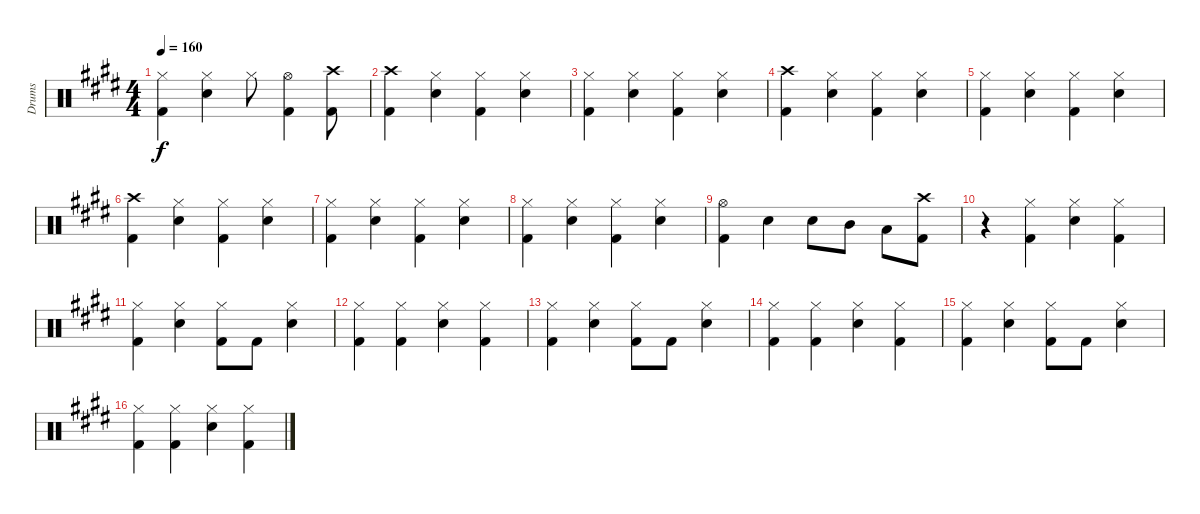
\track ("Drums" "Drums") {instrument percussion}
\staff {score}
\articulation defaults
\ts (4 4)
\tempo 160
\clef neutral
\ks e
("Hi-Hat (closed)" "Kick (hit) 2").4{dy f} ("Hi-Hat (closed)" "Electric Snare (hit)").4 "Hi-Hat (closed)".8 ("Hi-Hat (open)" "Kick (hit) 2").4 ("Crash high (hit)" "Kick (hit) 2").8 |
("Crash high (hit)" "Kick (hit) 2").4 ("Hi-Hat (closed)" "Electric Snare (hit)").4 ("Hi-Hat (closed)" "Kick (hit) 2").4 ("Hi-Hat (closed)" "Electric Snare (hit)").4 |
("Hi-Hat (closed)" "Kick (hit) 2").4 ("Hi-Hat (closed)" "Electric Snare (hit)").4 ("Hi-Hat (closed)" "Kick (hit) 2").4 ("Hi-Hat (closed)" "Electric Snare (hit)").4 |
("Crash high (hit)" "Kick (hit) 2").4 ("Hi-Hat (closed)" "Electric Snare (hit)").4 ("Hi-Hat (closed)" "Kick (hit) 2").4 ("Hi-Hat (closed)" "Electric Snare (hit)").4 |
("Hi-Hat (closed)" "Kick (hit) 2").4 ("Hi-Hat (closed)" "Electric Snare (hit)").4 ("Hi-Hat (closed)" "Kick (hit) 2").4 ("Hi-Hat (closed)" "Electric Snare (hit)").4 |
("Crash high (hit)" "Kick (hit) 2").4 ("Hi-Hat (closed)" "Electric Snare (hit)").4 ("Hi-Hat (closed)" "Kick (hit) 2").4 ("Hi-Hat (closed)" "Electric Snare (hit)").4 |
("Hi-Hat (closed)" "Kick (hit) 2").4 ("Hi-Hat (closed)" "Electric Snare (hit)").4 ("Hi-Hat (closed)" "Kick (hit) 2").4 ("Hi-Hat (closed)" "Electric Snare (hit)").4 |
("Hi-Hat (closed)" "Kick (hit) 2").4 ("Hi-Hat (closed)" "Electric Snare (hit)").4 ("Hi-Hat (closed)" "Kick (hit) 2").4 ("Hi-Hat (closed)" "Electric Snare (hit)").4 |
("Hi-Hat (open)" "Kick (hit) 2").4 "Electric Snare (hit)".4 "Electric Snare (hit)".8 "Mid Tom (hit)".8 "Low Tom (hit)".8 ("Crash high (hit)" "Kick (hit) 2").8 |
r.4 ("Hi-Hat (closed)" "Kick (hit) 2").4 ("Hi-Hat (closed)" "Electric Snare (hit)").4 ("Hi-Hat (closed)" "Kick (hit) 2").4 |
("Hi-Hat (closed)" "Kick (hit) 2").4 ("Hi-Hat (closed)" "Electric Snare (hit)").4 ("Hi-Hat (closed)" "Kick (hit) 2").8 "Kick (hit) 2".8 ("Hi-Hat (closed)" "Electric Snare (hit)").4 |
("Hi-Hat (closed)" "Kick (hit) 2").4 ("Hi-Hat (closed)" "Kick (hit) 2").4 ("Hi-Hat (closed)" "Electric Snare (hit)").4 ("Hi-Hat (closed)" "Kick (hit) 2").4 |
("Hi-Hat (closed)" "Kick (hit) 2").4 ("Hi-Hat (closed)" "Electric Snare (hit)").4 ("Hi-Hat (closed)" "Kick (hit) 2").8 "Kick (hit) 2".8 ("Hi-Hat (closed)" "Electric Snare (hit)").4 |
("Hi-Hat (closed)" "Kick (hit) 2").4 ("Hi-Hat (closed)" "Kick (hit) 2").4 ("Hi-Hat (closed)" "Electric Snare (hit)").4 ("Hi-Hat (closed)" "Kick (hit) 2").4 |
("Hi-Hat (closed)" "Kick (hit) 2").4 ("Hi-Hat (closed)" "Electric Snare (hit)").4 ("Hi-Hat (closed)" "Kick (hit) 2").8 "Kick (hit) 2".8 ("Hi-Hat (closed)" "Electric Snare (hit)").4 |
("Hi-Hat (closed)" "Kick (hit) 2").4 ("Hi-Hat (closed)" "Kick (hit) 2").4 ("Hi-Hat (closed)" "Electric Snare (hit)").4 ("Hi-Hat (closed)" "Kick (hit) 2").4
